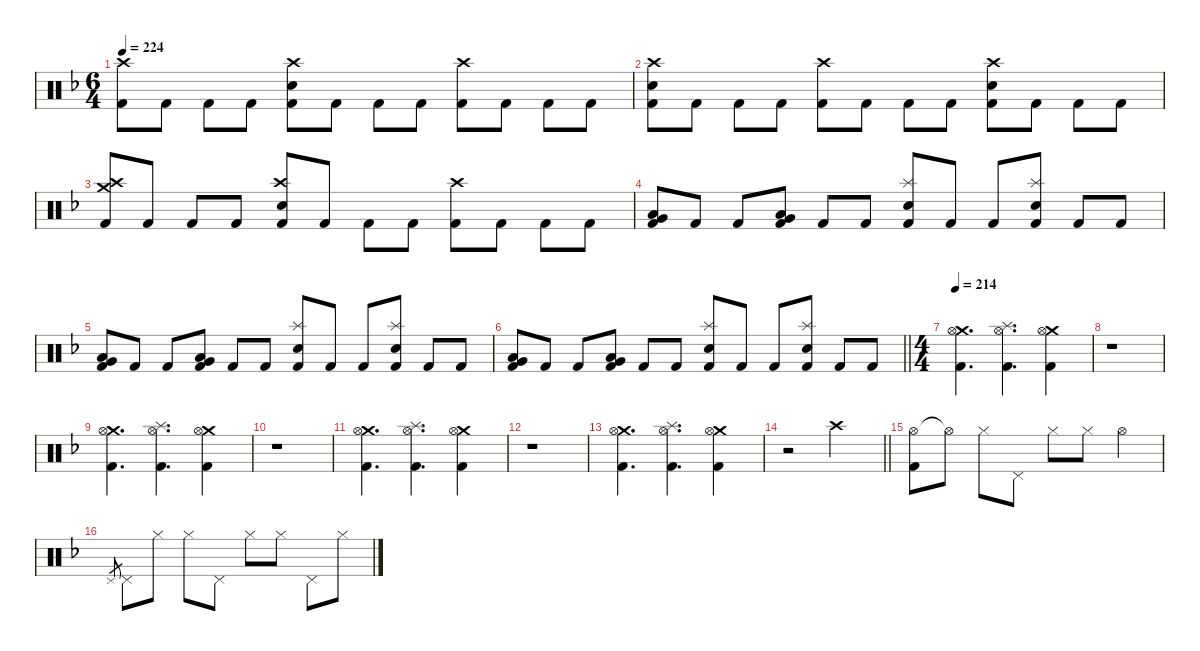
\hideDynamics
\bracketExtendMode nobrackets
\singleTrackTrackNamePolicy hidden
\multiTrackTrackNamePolicy hidden
\firstSystemTrackNameMode fullname
\firstSystemTrackNameOrientation horizontal
\otherSystemsTrackNameOrientation horizontal
\track ("Drumkit" "Drums") {defaultSystemsLayout 4 instrument percussion}
\staff {score}
\articulation defaults
\ts (6 4)
\tempo 224
\clef neutral
\ks dminor
("Crash high (hit)"{acc forcenatural} "Kick (hit) 2"{acc forcenatural}).8{dy f beam Down} "Kick (hit) 2"{acc forcenatural}.8{beam Down} "Kick (hit) 2"{acc forcenatural}.8{beam Down} "Kick (hit) 2"{acc forcenatural}.8{beam Down} ("Crash high (hit)"{acc forcenatural} "Snare (hit) 2"{acc forcenatural} "Kick (hit) 2"{acc forcenatural}).8{beam Down} "Kick (hit) 2"{acc forcenatural}.8{beam Down} "Kick (hit) 2"{acc forcenatural}.8{beam Down} "Kick (hit) 2"{acc forcenatural}.8{beam Down} ("Crash high (hit)"{acc forcenatural} "Kick (hit) 2"{acc forcenatural}).8{beam Down} "Kick (hit) 2"{acc forcenatural}.8{beam Down} "Kick (hit) 2"{acc forcenatural}.8{beam Down} "Kick (hit) 2"{acc forcenatural}.8{beam Down} |
("Crash high (hit)"{acc forcenatural} "Snare (hit) 2"{acc forcenatural} "Kick (hit) 2"{acc forcenatural}).8{beam Down} "Kick (hit) 2"{acc forcenatural}.8{beam Down} "Kick (hit) 2"{acc forcenatural}.8{beam Down} "Kick (hit) 2"{acc forcenatural}.8{beam Down} ("Crash high (hit)"{acc forcenatural} "Kick (hit) 2"{acc forcenatural}).8{beam Down} "Kick (hit) 2"{acc forcenatural}.8{beam Down} "Kick (hit) 2"{acc forcenatural}.8{beam Down} "Kick (hit) 2"{acc forcenatural}.8{beam Down} ("Crash high (hit)"{acc forcenatural} "Snare (hit) 2"{acc forcenatural} "Kick (hit) 2"{acc forcenatural}).8{beam Down} "Kick (hit) 2"{acc forcenatural}.8{beam Down} "Kick (hit) 2"{acc forcenatural}.8{beam Down} "Kick (hit) 2"{acc forcenatural}.8{beam Down} |
("Crash medium (hit)"{acc forcenatural} "Crash high (hit)"{acc forcenatural} "Kick (hit) 2"{acc forcenatural}).8{beam Up} "Kick (hit) 2"{acc forcenatural}.8{beam Up} "Kick (hit) 2"{acc forcenatural}.8{beam Up} "Kick (hit) 2"{acc forcenatural}.8{beam Up} ("Crash high (hit)"{acc forcenatural} "Snare (hit) 2"{acc forcenatural} "Kick (hit) 2"{acc forcenatural}).8{beam Up} "Kick (hit) 2"{acc forcenatural}.8{beam Up} "Kick (hit) 2"{acc forcenatural}.8{beam Down} "Kick (hit) 2"{acc forcenatural}.8{beam Down} ("Crash high (hit)"{acc forcenatural} "Kick (hit) 2"{acc forcenatural}).8{beam Down} "Kick (hit) 2"{acc forcenatural}.8{beam Down} "Kick (hit) 2"{acc forcenatural}.8{beam Down} "Kick (hit) 2"{acc forcenatural}.8{beam Down} |
("Very Low Tom (hit)"{acc forcenatural} "Low Tom (hit)"{acc forcenatural} "Kick (hit) 2"{acc forcenatural}).8{beam Up} "Kick (hit) 2"{acc forcenatural}.8{beam Up} "Kick (hit) 2"{acc forcenatural}.8{beam Up} ("Very Low Tom (hit)"{acc forcenatural} "Low Tom (hit)"{acc forcenatural} "Kick (hit) 2"{acc forcenatural}).8{beam Up} "Kick (hit) 2"{acc forcenatural}.8{beam Up} "Kick (hit) 2"{acc forcenatural}.8{beam Up} ("Splash (hit)"{acc forcenatural} "Snare (hit) 2"{acc forcenatural} "Kick (hit) 2"{acc forcenatural}).8{beam Up} "Kick (hit) 2"{acc forcenatural}.8{beam Up} "Kick (hit) 2"{acc forcenatural}.8{beam Up} ("Splash (hit)"{acc forcenatural} "Snare (hit) 2"{acc forcenatural} "Kick (hit) 2"{acc forcenatural}).8{beam Up} "Kick (hit) 2"{acc forcenatural}.8{beam Up} "Kick (hit) 2"{acc forcenatural}.8{beam Up} |
("Very Low Tom (hit)"{acc forcenatural} "Low Tom (hit)"{acc forcenatural} "Kick (hit) 2"{acc forcenatural}).8{beam Up} "Kick (hit) 2"{acc forcenatural}.8{beam Up} "Kick (hit) 2"{acc forcenatural}.8{beam Up} ("Very Low Tom (hit)"{acc forcenatural} "Low Tom (hit)"{acc forcenatural} "Kick (hit) 2"{acc forcenatural}).8{beam Up} "Kick (hit) 2"{acc forcenatural}.8{beam Up} "Kick (hit) 2"{acc forcenatural}.8{beam Up} ("Splash (hit)"{acc forcenatural} "Snare (hit) 2"{acc forcenatural} "Kick (hit) 2"{acc forcenatural}).8{beam Up} "Kick (hit) 2"{acc forcenatural}.8{beam Up} "Kick (hit) 2"{acc forcenatural}.8{beam Up} ("Splash (hit)"{acc forcenatural} "Snare (hit) 2"{acc forcenatural} "Kick (hit) 2"{acc forcenatural}).8{beam Up} "Kick (hit) 2"{acc forcenatural}.8{beam Up} "Kick (hit) 2"{acc forcenatural}.8{beam Up} |
\barLineRight lightlight
("Very Low Tom (hit)"{acc forcenatural} "Low Tom (hit)"{acc forcenatural} "Kick (hit) 2"{acc forcenatural}).8{beam Up} "Kick (hit) 2"{acc forcenatural}.8{beam Up} "Kick (hit) 2"{acc forcenatural}.8{beam Up} ("Very Low Tom (hit)"{acc forcenatural} "Low Tom (hit)"{acc forcenatural} "Kick (hit) 2"{acc forcenatural}).8{beam Up} "Kick (hit) 2"{acc forcenatural}.8{beam Up} "Kick (hit) 2"{acc forcenatural}.8{beam Up} ("Splash (hit)"{acc forcenatural} "Snare (hit) 2"{acc forcenatural} "Kick (hit) 2"{acc forcenatural}).8{beam Up} "Kick (hit) 2"{acc forcenatural}.8{beam Up} "Kick (hit) 2"{acc forcenatural}.8{beam Up} ("Splash (hit)"{acc forcenatural} "Snare (hit) 2"{acc forcenatural} "Kick (hit) 2"{acc forcenatural}).8{beam Up} "Kick (hit) 2"{acc forcenatural}.8{beam Up} "Kick (hit) 2"{acc forcenatural}.8{beam Up} |
\ts (4 4)
\tempo 214
("Crash medium (hit)"{acc forcenatural} "Hi-Hat (open)"{acc forcenatural} "Kick (hit) 2"{acc forcenatural}).4{d beam Down} ("Splash (hit)"{acc forcenatural} "Hi-Hat (open)"{acc forcenatural} "Kick (hit) 2"{acc forcenatural}).4{d beam Down} ("Crash medium (hit)"{acc forcenatural} "Hi-Hat (open)"{acc forcenatural} "Kick (hit) 2"{acc forcenatural}).4{beam Down} |
r.1{beam Down} |
("Crash medium (hit)"{acc forcenatural} "Hi-Hat (open)"{acc forcenatural} "Kick (hit) 2"{acc forcenatural}).4{d beam Down} ("Splash (hit)"{acc forcenatural} "Hi-Hat (open)"{acc forcenatural} "Kick (hit) 2"{acc forcenatural}).4{d beam Down} ("Crash medium (hit)"{acc forcenatural} "Hi-Hat (open)"{acc forcenatural} "Kick (hit) 2"{acc forcenatural}).4{beam Down} |
r.1{beam Down} |
("Crash medium (hit)"{acc forcenatural} "Hi-Hat (open)"{acc forcenatural} "Kick (hit) 2"{acc forcenatural}).4{d beam Down} ("Splash (hit)"{acc forcenatural} "Hi-Hat (open)"{acc forcenatural} "Kick (hit) 2"{acc forcenatural}).4{d beam Down} ("Crash medium (hit)"{acc forcenatural} "Hi-Hat (open)"{acc forcenatural} "Kick (hit) 2"{acc forcenatural}).4{beam Down} |
r.1{beam Down} |
("Crash medium (hit)"{acc forcenatural} "Hi-Hat (open)"{acc forcenatural} "Kick (hit) 2"{acc forcenatural}).4{d beam Down} ("Splash (hit)"{acc forcenatural} "Hi-Hat (open)"{acc forcenatural} "Kick (hit) 2"{acc forcenatural}).4{d beam Down} ("Crash medium (hit)"{acc forcenatural} "Hi-Hat (open)"{acc forcenatural} "Kick (hit) 2"{acc forcenatural}).4{beam Down} |
\barLineRight lightlight
r.2{beam Down} "Crash high (hit)"{acc forcenatural}.2{beam Down} |
("Hi-Hat (open)"{acc forcenatural} "Kick (hit) 2"{acc forcenatural}).8{dy mf beam Down} "Hi-Hat (open)"{t acc forcenatural}.8{dy f beam Down} "Hi-Hat (closed)"{acc forcenatural}.8{dy mp beam Down} "Pedal Hi-Hat (hit)"{acc forcenatural}.8{beam Down} "Hi-Hat (closed)"{acc forcenatural}.8{beam Down} "Hi-Hat (closed)"{acc forcenatural}.8{beam Down} "Hi-Hat (open)"{acc forcenatural}.4{dy mf beam Down} |
"Pedal Hi-Hat (hit)"{acc forcenatural}.8{gr dy p beam Up} "Pedal Hi-Hat (hit)"{acc forcenatural}.8{dy mf beam Down} "Hi-Hat (closed)"{acc forcenatural}.8{dy mp beam Down} "Hi-Hat (closed)"{acc forcenatural}.8{beam Down} "Pedal Hi-Hat (hit)"{acc forcenatural}.8{dy mf beam Down} "Hi-Hat (closed)"{acc forcenatural}.8{dy mp beam Down} "Hi-Hat (closed)"{acc forcenatural}.8{beam Down} "Pedal Hi-Hat (hit)"{acc forcenatural}.8{dy mf beam Down} "Hi-Hat (closed)"{acc forcenatural}.8{dy mp beam Down}
